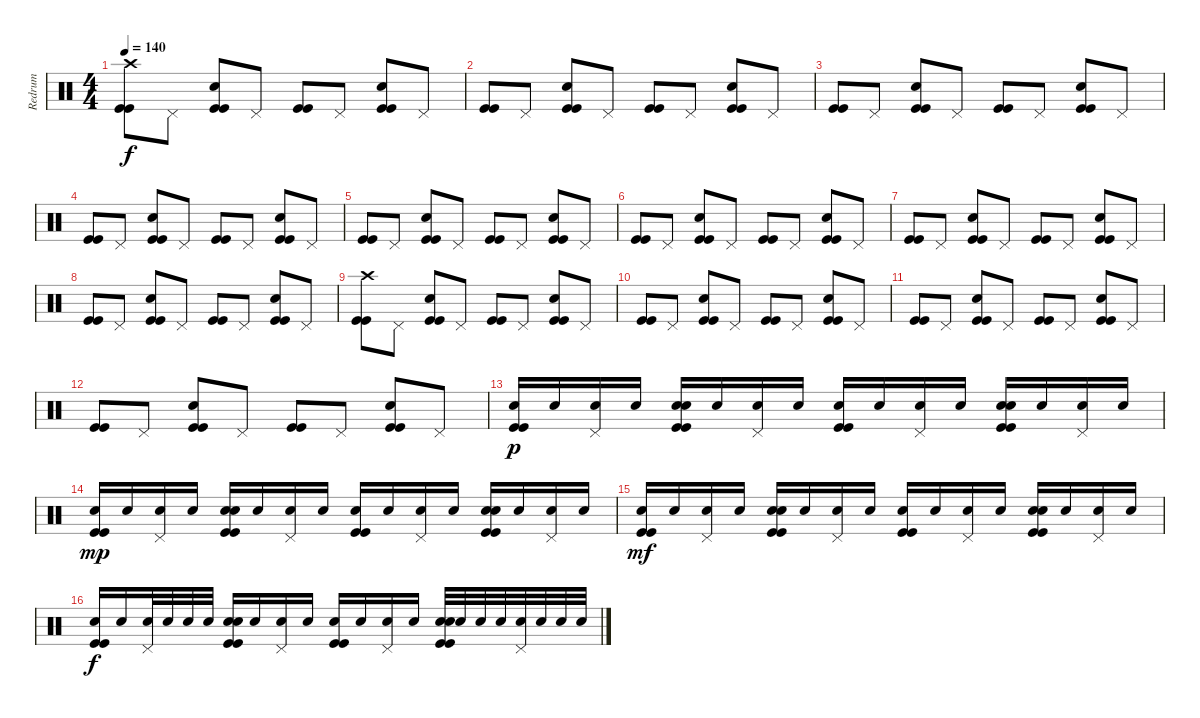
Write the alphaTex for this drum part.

\track ("Redrum" "Redrum") {instrument percussion}
\staff {score}
\articulation defaults
\ts (4 4)
\tempo 140
\clef neutral
\ks c
("Crash high (hit)" "Kick (hit)" "Kick (hit)").8{dy f} "Pedal Hi-Hat (hit)".8 ("Hand Clap (hit)" "Kick (hit)" "Kick (hit)").8 "Pedal Hi-Hat (hit)".8 ("Kick (hit)" "Kick (hit)").8 "Pedal Hi-Hat (hit)".8 ("Hand Clap (hit)" "Kick (hit)" "Kick (hit)").8 "Pedal Hi-Hat (hit)".8 |
("Kick (hit)" "Kick (hit)").8 "Pedal Hi-Hat (hit)".8 ("Hand Clap (hit)" "Kick (hit)" "Kick (hit)").8 "Pedal Hi-Hat (hit)".8 ("Kick (hit)" "Kick (hit)").8 "Pedal Hi-Hat (hit)".8 ("Hand Clap (hit)" "Kick (hit)" "Kick (hit)").8 "Pedal Hi-Hat (hit)".8 |
("Kick (hit)" "Kick (hit)").8 "Pedal Hi-Hat (hit)".8 ("Hand Clap (hit)" "Kick (hit)" "Kick (hit)").8 "Pedal Hi-Hat (hit)".8 ("Kick (hit)" "Kick (hit)").8 "Pedal Hi-Hat (hit)".8 ("Hand Clap (hit)" "Kick (hit)" "Kick (hit)").8 "Pedal Hi-Hat (hit)".8 |
("Kick (hit)" "Kick (hit)").8 "Pedal Hi-Hat (hit)".8 ("Hand Clap (hit)" "Kick (hit)" "Kick (hit)").8 "Pedal Hi-Hat (hit)".8 ("Kick (hit)" "Kick (hit)").8 "Pedal Hi-Hat (hit)".8 ("Hand Clap (hit)" "Kick (hit)" "Kick (hit)").8 "Pedal Hi-Hat (hit)".8 |
("Kick (hit)" "Kick (hit)").8 "Pedal Hi-Hat (hit)".8 ("Hand Clap (hit)" "Kick (hit)" "Kick (hit)").8 "Pedal Hi-Hat (hit)".8 ("Kick (hit)" "Kick (hit)").8 "Pedal Hi-Hat (hit)".8 ("Hand Clap (hit)" "Kick (hit)" "Kick (hit)").8 "Pedal Hi-Hat (hit)".8 |
("Kick (hit)" "Kick (hit)").8 "Pedal Hi-Hat (hit)".8 ("Hand Clap (hit)" "Kick (hit)" "Kick (hit)").8 "Pedal Hi-Hat (hit)".8 ("Kick (hit)" "Kick (hit)").8 "Pedal Hi-Hat (hit)".8 ("Hand Clap (hit)" "Kick (hit)" "Kick (hit)").8 "Pedal Hi-Hat (hit)".8 |
("Kick (hit)" "Kick (hit)").8 "Pedal Hi-Hat (hit)".8 ("Hand Clap (hit)" "Kick (hit)" "Kick (hit)").8 "Pedal Hi-Hat (hit)".8 ("Kick (hit)" "Kick (hit)").8 "Pedal Hi-Hat (hit)".8 ("Hand Clap (hit)" "Kick (hit)" "Kick (hit)").8 "Pedal Hi-Hat (hit)".8 |
("Kick (hit)" "Kick (hit)").8 "Pedal Hi-Hat (hit)".8 ("Hand Clap (hit)" "Kick (hit)" "Kick (hit)").8 "Pedal Hi-Hat (hit)".8 ("Kick (hit)" "Kick (hit)").8 "Pedal Hi-Hat (hit)".8 ("Hand Clap (hit)" "Kick (hit)" "Kick (hit)").8 "Pedal Hi-Hat (hit)".8 |
("Crash high (hit)" "Kick (hit)" "Kick (hit)").8 "Pedal Hi-Hat (hit)".8 ("Hand Clap (hit)" "Kick (hit)" "Kick (hit)").8 "Pedal Hi-Hat (hit)".8 ("Kick (hit)" "Kick (hit)").8 "Pedal Hi-Hat (hit)".8 ("Hand Clap (hit)" "Kick (hit)" "Kick (hit)").8 "Pedal Hi-Hat (hit)".8 |
("Kick (hit)" "Kick (hit)").8 "Pedal Hi-Hat (hit)".8 ("Hand Clap (hit)" "Kick (hit)" "Kick (hit)").8 "Pedal Hi-Hat (hit)".8 ("Kick (hit)" "Kick (hit)").8 "Pedal Hi-Hat (hit)".8 ("Hand Clap (hit)" "Kick (hit)" "Kick (hit)").8 "Pedal Hi-Hat (hit)".8 |
("Kick (hit)" "Kick (hit)").8 "Pedal Hi-Hat (hit)".8 ("Hand Clap (hit)" "Kick (hit)" "Kick (hit)").8 "Pedal Hi-Hat (hit)".8 ("Kick (hit)" "Kick (hit)").8 "Pedal Hi-Hat (hit)".8 ("Hand Clap (hit)" "Kick (hit)" "Kick (hit)").8 "Pedal Hi-Hat (hit)".8 |
("Kick (hit)" "Kick (hit)").8 "Pedal Hi-Hat (hit)".8 ("Hand Clap (hit)" "Kick (hit)" "Kick (hit)").8 "Pedal Hi-Hat (hit)".8 ("Kick (hit)" "Kick (hit)").8 "Pedal Hi-Hat (hit)".8 ("Hand Clap (hit)" "Kick (hit)" "Kick (hit)").8 "Pedal Hi-Hat (hit)".8 |
("Snare (hit) 2" "Kick (hit)" "Kick (hit)").16{dy p} "Snare (hit) 2".16 ("Snare (hit) 2" "Pedal Hi-Hat (hit)").16 "Snare (hit) 2".16 ("Snare (hit) 2" "Hand Clap (hit)" "Kick (hit)" "Kick (hit)").16 "Snare (hit) 2".16 ("Snare (hit) 2" "Pedal Hi-Hat (hit)").16 "Snare (hit) 2".16 ("Snare (hit) 2" "Kick (hit)" "Kick (hit)").16 "Snare (hit) 2".16 ("Snare (hit) 2" "Pedal Hi-Hat (hit)").16 "Snare (hit) 2".16 ("Snare (hit) 2" "Hand Clap (hit)" "Kick (hit)" "Kick (hit)").16 "Snare (hit) 2".16 ("Snare (hit) 2" "Pedal Hi-Hat (hit)").16 "Snare (hit) 2".16 |
("Snare (hit) 2" "Kick (hit)" "Kick (hit)").16{dy mp} "Snare (hit) 2".16 ("Snare (hit) 2" "Pedal Hi-Hat (hit)").16 "Snare (hit) 2".16 ("Snare (hit) 2" "Hand Clap (hit)" "Kick (hit)" "Kick (hit)").16 "Snare (hit) 2".16 ("Snare (hit) 2" "Pedal Hi-Hat (hit)").16 "Snare (hit) 2".16 ("Snare (hit) 2" "Kick (hit)" "Kick (hit)").16 "Snare (hit) 2".16 ("Snare (hit) 2" "Pedal Hi-Hat (hit)").16 "Snare (hit) 2".16 ("Snare (hit) 2" "Hand Clap (hit)" "Kick (hit)" "Kick (hit)").16 "Snare (hit) 2".16 ("Snare (hit) 2" "Pedal Hi-Hat (hit)").16 "Snare (hit) 2".16 |
("Snare (hit) 2" "Kick (hit)" "Kick (hit)").16{dy mf} "Snare (hit) 2".16 ("Snare (hit) 2" "Pedal Hi-Hat (hit)").16 "Snare (hit) 2".16 ("Snare (hit) 2" "Hand Clap (hit)" "Kick (hit)" "Kick (hit)").16 "Snare (hit) 2".16 ("Snare (hit) 2" "Pedal Hi-Hat (hit)").16 "Snare (hit) 2".16 ("Snare (hit) 2" "Kick (hit)" "Kick (hit)").16 "Snare (hit) 2".16 ("Snare (hit) 2" "Pedal Hi-Hat (hit)").16 "Snare (hit) 2".16 ("Snare (hit) 2" "Hand Clap (hit)" "Kick (hit)" "Kick (hit)").16 "Snare (hit) 2".16 ("Snare (hit) 2" "Pedal Hi-Hat (hit)").16 "Snare (hit) 2".16 |
("Snare (hit) 2" "Kick (hit)" "Kick (hit)").16{dy f} "Snare (hit) 2".16 ("Snare (hit) 2" "Pedal Hi-Hat (hit)").32 "Snare (hit) 2".32 "Snare (hit) 2".32 "Snare (hit) 2".32 ("Snare (hit) 2" "Hand Clap (hit)" "Kick (hit)" "Kick (hit)").16 "Snare (hit) 2".16 ("Snare (hit) 2" "Pedal Hi-Hat (hit)").16 "Snare (hit) 2".16 ("Snare (hit) 2" "Kick (hit)" "Kick (hit)").16 "Snare (hit) 2".16 ("Snare (hit) 2" "Pedal Hi-Hat (hit)").16 "Snare (hit) 2".16 ("Snare (hit) 2" "Hand Clap (hit)" "Kick (hit)" "Kick (hit)").32 "Snare (hit) 2".32 "Snare (hit) 2".32 "Snare (hit) 2".32 ("Snare (hit) 2" "Pedal Hi-Hat (hit)").32 "Snare (hit) 2".32 "Snare (hit) 2".32 "Snare (hit) 2".32
